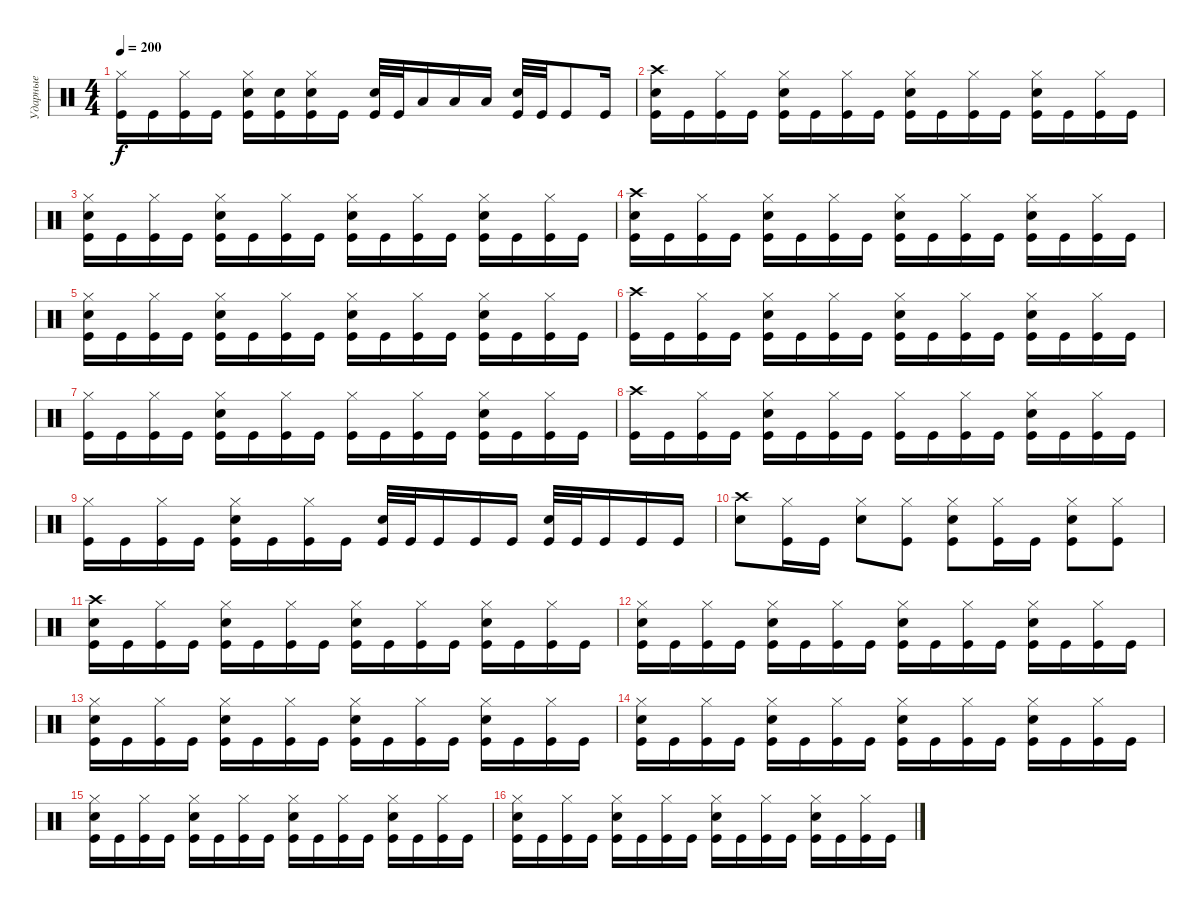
\track ("Ударные" "Ударные") {instrument percussion}
\staff {score}
\articulation defaults
\ts (4 4)
\tempo 200
\clef neutral
\ks c
("Hi-Hat (closed)" "Kick (hit)").16{dy f} "Kick (hit)".16 ("Hi-Hat (closed)" "Kick (hit)").16 "Kick (hit)".16 ("Hi-Hat (closed)" "Electric Snare (hit)" "Kick (hit)").16 ("Electric Snare (hit)" "Kick (hit)").16 ("Hi-Hat (closed)" "Electric Snare (hit)" "Kick (hit)").16 "Kick (hit)".16 ("Electric Snare (hit)" "Kick (hit)").32 "Kick (hit)".32 "Low Tom (hit)".16 "Low Tom (hit)".16 "Low Tom (hit)".16 ("Electric Snare (hit)" "Kick (hit)").32 "Kick (hit)".32 "Kick (hit)".8 "Kick (hit)".16 |
("Crash high (hit)" "Electric Snare (hit)" "Kick (hit)").16 "Kick (hit)".16 ("Hi-Hat (closed)" "Kick (hit)").16 "Kick (hit)".16 ("Hi-Hat (closed)" "Electric Snare (hit)" "Kick (hit)").16 "Kick (hit)".16 ("Hi-Hat (closed)" "Kick (hit)").16 "Kick (hit)".16 ("Hi-Hat (closed)" "Electric Snare (hit)" "Kick (hit)").16 "Kick (hit)".16 ("Hi-Hat (closed)" "Kick (hit)").16 "Kick (hit)".16 ("Hi-Hat (closed)" "Electric Snare (hit)" "Kick (hit)").16 "Kick (hit)".16 ("Hi-Hat (closed)" "Kick (hit)").16 "Kick (hit)".16 |
("Hi-Hat (closed)" "Electric Snare (hit)" "Kick (hit)").16 "Kick (hit)".16 ("Hi-Hat (closed)" "Kick (hit)").16 "Kick (hit)".16 ("Hi-Hat (closed)" "Electric Snare (hit)" "Kick (hit)").16 "Kick (hit)".16 ("Hi-Hat (closed)" "Kick (hit)").16 "Kick (hit)".16 ("Hi-Hat (closed)" "Electric Snare (hit)" "Kick (hit)").16 "Kick (hit)".16 ("Hi-Hat (closed)" "Kick (hit)").16 "Kick (hit)".16 ("Hi-Hat (closed)" "Electric Snare (hit)" "Kick (hit)").16 "Kick (hit)".16 ("Hi-Hat (closed)" "Kick (hit)").16 "Kick (hit)".16 |
("Crash high (hit)" "Electric Snare (hit)" "Kick (hit)").16 "Kick (hit)".16 ("Hi-Hat (closed)" "Kick (hit)").16 "Kick (hit)".16 ("Hi-Hat (closed)" "Electric Snare (hit)" "Kick (hit)").16 "Kick (hit)".16 ("Hi-Hat (closed)" "Kick (hit)").16 "Kick (hit)".16 ("Hi-Hat (closed)" "Electric Snare (hit)" "Kick (hit)").16 "Kick (hit)".16 ("Hi-Hat (closed)" "Kick (hit)").16 "Kick (hit)".16 ("Hi-Hat (closed)" "Electric Snare (hit)" "Kick (hit)").16 "Kick (hit)".16 ("Hi-Hat (closed)" "Kick (hit)").16 "Kick (hit)".16 |
("Hi-Hat (closed)" "Electric Snare (hit)" "Kick (hit)").16 "Kick (hit)".16 ("Hi-Hat (closed)" "Kick (hit)").16 "Kick (hit)".16 ("Hi-Hat (closed)" "Electric Snare (hit)" "Kick (hit)").16 "Kick (hit)".16 ("Hi-Hat (closed)" "Kick (hit)").16 "Kick (hit)".16 ("Hi-Hat (closed)" "Electric Snare (hit)" "Kick (hit)").16 "Kick (hit)".16 ("Hi-Hat (closed)" "Kick (hit)").16 "Kick (hit)".16 ("Hi-Hat (closed)" "Electric Snare (hit)" "Kick (hit)").16 "Kick (hit)".16 ("Hi-Hat (closed)" "Kick (hit)").16 "Kick (hit)".16 |
("Crash high (hit)" "Kick (hit)").16 "Kick (hit)".16 ("Hi-Hat (closed)" "Kick (hit)").16 "Kick (hit)".16 ("Hi-Hat (closed)" "Electric Snare (hit)" "Kick (hit)").16 "Kick (hit)".16 ("Hi-Hat (closed)" "Kick (hit)").16 "Kick (hit)".16 ("Hi-Hat (closed)" "Electric Snare (hit)" "Kick (hit)").16 "Kick (hit)".16 ("Hi-Hat (closed)" "Kick (hit)").16 "Kick (hit)".16 ("Hi-Hat (closed)" "Electric Snare (hit)" "Kick (hit)").16 "Kick (hit)".16 ("Hi-Hat (closed)" "Kick (hit)").16 "Kick (hit)".16 |
("Hi-Hat (closed)" "Kick (hit)").16 "Kick (hit)".16 ("Hi-Hat (closed)" "Kick (hit)").16 "Kick (hit)".16 ("Hi-Hat (closed)" "Electric Snare (hit)" "Kick (hit)").16 "Kick (hit)".16 ("Hi-Hat (closed)" "Kick (hit)").16 "Kick (hit)".16 ("Hi-Hat (closed)" "Kick (hit)").16 "Kick (hit)".16 ("Hi-Hat (closed)" "Kick (hit)").16 "Kick (hit)".16 ("Hi-Hat (closed)" "Electric Snare (hit)" "Kick (hit)").16 "Kick (hit)".16 ("Hi-Hat (closed)" "Kick (hit)").16 "Kick (hit)".16 |
("Crash high (hit)" "Kick (hit)").16 "Kick (hit)".16 ("Hi-Hat (closed)" "Kick (hit)").16 "Kick (hit)".16 ("Hi-Hat (closed)" "Electric Snare (hit)" "Kick (hit)").16 "Kick (hit)".16 ("Hi-Hat (closed)" "Kick (hit)").16 "Kick (hit)".16 ("Hi-Hat (closed)" "Kick (hit)").16 "Kick (hit)".16 ("Hi-Hat (closed)" "Kick (hit)").16 "Kick (hit)".16 ("Hi-Hat (closed)" "Electric Snare (hit)" "Kick (hit)").16 "Kick (hit)".16 ("Hi-Hat (closed)" "Kick (hit)").16 "Kick (hit)".16 |
("Hi-Hat (closed)" "Kick (hit)").16 "Kick (hit)".16 ("Hi-Hat (closed)" "Kick (hit)").16 "Kick (hit)".16 ("Hi-Hat (closed)" "Electric Snare (hit)" "Kick (hit)").16 "Kick (hit)".16 ("Hi-Hat (closed)" "Kick (hit)").16 "Kick (hit)".16 ("Electric Snare (hit)" "Kick (hit)").32 "Kick (hit)".32 "Kick (hit)".16 "Kick (hit)".16 "Kick (hit)".16 ("Electric Snare (hit)" "Kick (hit)").32 "Kick (hit)".32 "Kick (hit)".16 "Kick (hit)".16 "Kick (hit)".16 |
("Crash high (hit)" "Electric Snare (hit)").8 ("Hi-Hat (closed)" "Kick (hit)").16 "Kick (hit)".16 ("Hi-Hat (closed)" "Electric Snare (hit)").8 ("Hi-Hat (closed)" "Kick (hit)").8 ("Hi-Hat (closed)" "Electric Snare (hit)" "Kick (hit)").8 ("Hi-Hat (closed)" "Kick (hit)").16 "Kick (hit)".16 ("Hi-Hat (closed)" "Electric Snare (hit)" "Kick (hit)").8 ("Hi-Hat (closed)" "Kick (hit)").8 |
("Crash high (hit)" "Electric Snare (hit)" "Kick (hit)").16 "Kick (hit)".16 ("Hi-Hat (closed)" "Kick (hit)").16 "Kick (hit)".16 ("Hi-Hat (closed)" "Electric Snare (hit)" "Kick (hit)").16 "Kick (hit)".16 ("Hi-Hat (closed)" "Kick (hit)").16 "Kick (hit)".16 ("Hi-Hat (closed)" "Electric Snare (hit)" "Kick (hit)").16 "Kick (hit)".16 ("Hi-Hat (closed)" "Kick (hit)").16 "Kick (hit)".16 ("Hi-Hat (closed)" "Electric Snare (hit)" "Kick (hit)").16 "Kick (hit)".16 ("Hi-Hat (closed)" "Kick (hit)").16 "Kick (hit)".16 |
("Hi-Hat (closed)" "Electric Snare (hit)" "Kick (hit)").16 "Kick (hit)".16 ("Hi-Hat (closed)" "Kick (hit)").16 "Kick (hit)".16 ("Hi-Hat (closed)" "Electric Snare (hit)" "Kick (hit)").16 "Kick (hit)".16 ("Hi-Hat (closed)" "Kick (hit)").16 "Kick (hit)".16 ("Hi-Hat (closed)" "Electric Snare (hit)" "Kick (hit)").16 "Kick (hit)".16 ("Hi-Hat (closed)" "Kick (hit)").16 "Kick (hit)".16 ("Hi-Hat (closed)" "Electric Snare (hit)" "Kick (hit)").16 "Kick (hit)".16 ("Hi-Hat (closed)" "Kick (hit)").16 "Kick (hit)".16 |
("Hi-Hat (closed)" "Electric Snare (hit)" "Kick (hit)").16 "Kick (hit)".16 ("Hi-Hat (closed)" "Kick (hit)").16 "Kick (hit)".16 ("Hi-Hat (closed)" "Electric Snare (hit)" "Kick (hit)").16 "Kick (hit)".16 ("Hi-Hat (closed)" "Kick (hit)").16 "Kick (hit)".16 ("Hi-Hat (closed)" "Electric Snare (hit)" "Kick (hit)").16 "Kick (hit)".16 ("Hi-Hat (closed)" "Kick (hit)").16 "Kick (hit)".16 ("Hi-Hat (closed)" "Electric Snare (hit)" "Kick (hit)").16 "Kick (hit)".16 ("Hi-Hat (closed)" "Kick (hit)").16 "Kick (hit)".16 |
("Hi-Hat (closed)" "Electric Snare (hit)" "Kick (hit)").16 "Kick (hit)".16 ("Hi-Hat (closed)" "Kick (hit)").16 "Kick (hit)".16 ("Hi-Hat (closed)" "Electric Snare (hit)" "Kick (hit)").16 "Kick (hit)".16 ("Hi-Hat (closed)" "Kick (hit)").16 "Kick (hit)".16 ("Hi-Hat (closed)" "Electric Snare (hit)" "Kick (hit)").16 "Kick (hit)".16 ("Hi-Hat (closed)" "Kick (hit)").16 "Kick (hit)".16 ("Hi-Hat (closed)" "Electric Snare (hit)" "Kick (hit)").16 "Kick (hit)".16 ("Hi-Hat (closed)" "Kick (hit)").16 "Kick (hit)".16 |
("Hi-Hat (closed)" "Electric Snare (hit)" "Kick (hit)").16 "Kick (hit)".16 ("Hi-Hat (closed)" "Kick (hit)").16 "Kick (hit)".16 ("Hi-Hat (closed)" "Electric Snare (hit)" "Kick (hit)").16 "Kick (hit)".16 ("Hi-Hat (closed)" "Kick (hit)").16 "Kick (hit)".16 ("Hi-Hat (closed)" "Electric Snare (hit)" "Kick (hit)").16 "Kick (hit)".16 ("Hi-Hat (closed)" "Kick (hit)").16 "Kick (hit)".16 ("Hi-Hat (closed)" "Electric Snare (hit)" "Kick (hit)").16 "Kick (hit)".16 ("Hi-Hat (closed)" "Kick (hit)").16 "Kick (hit)".16 |
("Hi-Hat (closed)" "Electric Snare (hit)" "Kick (hit)").16 "Kick (hit)".16 ("Hi-Hat (closed)" "Kick (hit)").16 "Kick (hit)".16 ("Hi-Hat (closed)" "Electric Snare (hit)" "Kick (hit)").16 "Kick (hit)".16 ("Hi-Hat (closed)" "Kick (hit)").16 "Kick (hit)".16 ("Hi-Hat (closed)" "Electric Snare (hit)" "Kick (hit)").16 "Kick (hit)".16 ("Hi-Hat (closed)" "Kick (hit)").16 "Kick (hit)".16 ("Hi-Hat (closed)" "Electric Snare (hit)" "Kick (hit)").16 "Kick (hit)".16 ("Hi-Hat (closed)" "Kick (hit)").16 "Kick (hit)".16
